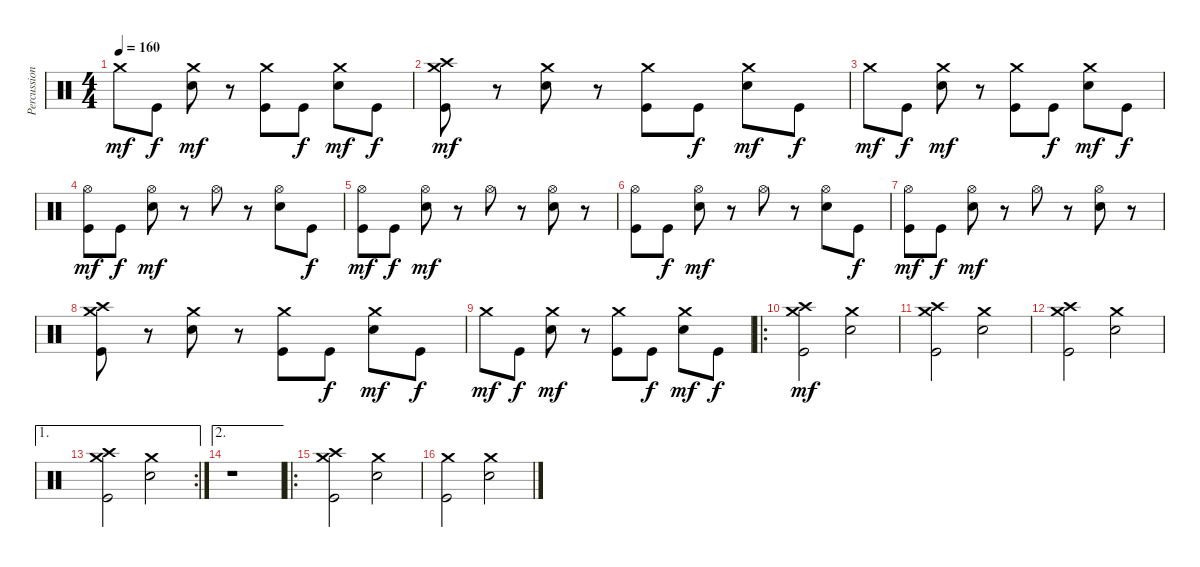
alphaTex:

\track ("Percussions" "Percussion") {instrument percussion}
\staff {score}
\articulation defaults
\ts (4 4)
\tempo 160
\clef neutral
\ks c "Crash medium (hit)".8{dy mf} "Kick (hit)".8{dy f}
("Electric Snare (hit)" "Crash medium (hit)").8{dy mf} r.8 ("Kick (hit)" "Crash medium (hit)").8 "Kick (hit)".8{dy f} ("Electric Snare (hit)" "Crash medium (hit)").8{dy mf} "Kick (hit)".8{dy f} |
("Kick (hit)" "Crash medium (hit)" "Crash high (hit)").8{dy mf} r.8 ("Electric Snare (hit)" "Crash medium (hit)").8 r.8 ("Kick (hit)" "Crash medium (hit)").8 "Kick (hit)".8{dy f} ("Electric Snare (hit)" "Crash medium (hit)").8{dy mf} "Kick (hit)".8{dy f} |
"Crash medium (hit)".8{dy mf} "Kick (hit)".8{dy f} ("Electric Snare (hit)" "Crash medium (hit)").8{dy mf} r.8 ("Kick (hit)" "Crash medium (hit)").8 "Kick (hit)".8{dy f} ("Electric Snare (hit)" "Crash medium (hit)").8{dy mf} "Kick (hit)".8{dy f} |
("Kick (hit)" "Hi-Hat (open)").8{dy mf} "Kick (hit)".8{dy f} ("Electric Snare (hit)" "Hi-Hat (open)").8{dy mf} r.8 "Hi-Hat (open)".8 r.8 ("Electric Snare (hit)" "Hi-Hat (open)").8 "Kick (hit)".8{dy f} |
("Kick (hit)" "Hi-Hat (open)").8{dy mf} "Kick (hit)".8{dy f} ("Electric Snare (hit)" "Hi-Hat (open)").8{dy mf} r.8 "Hi-Hat (open)".8 r.8 ("Electric Snare (hit)" "Hi-Hat (open)").8 r.8 |
("Kick (hit)" "Hi-Hat (open)").8 "Kick (hit)".8{dy f} ("Electric Snare (hit)" "Hi-Hat (open)").8{dy mf} r.8 "Hi-Hat (open)".8 r.8 ("Electric Snare (hit)" "Hi-Hat (open)").8 "Kick (hit)".8{dy f} |
("Kick (hit)" "Hi-Hat (open)").8{dy mf} "Kick (hit)".8{dy f} ("Electric Snare (hit)" "Hi-Hat (open)").8{dy mf} r.8 "Hi-Hat (open)".8 r.8 ("Electric Snare (hit)" "Hi-Hat (open)").8 r.8 |
("Kick (hit)" "Crash medium (hit)" "Crash high (hit)").8 r.8 ("Electric Snare (hit)" "Crash medium (hit)").8 r.8 ("Kick (hit)" "Crash medium (hit)").8 "Kick (hit)".8{dy f} ("Electric Snare (hit)" "Crash medium (hit)").8{dy mf} "Kick (hit)".8{dy f} |
"Crash medium (hit)".8{dy mf} "Kick (hit)".8{dy f} ("Electric Snare (hit)" "Crash medium (hit)").8{dy mf} r.8 ("Kick (hit)" "Crash medium (hit)").8 "Kick (hit)".8{dy f} ("Electric Snare (hit)" "Crash medium (hit)").8{dy mf} "Kick (hit)".8{dy f} |
\ro
("Kick (hit)" "Crash medium (hit)" "Crash high (hit)").2{dy mf} ("Electric Snare (hit)" "Crash medium (hit)").2 |
("Kick (hit)" "Crash medium (hit)" "Crash high (hit)").2 ("Electric Snare (hit)" "Crash medium (hit)").2 |
("Kick (hit)" "Crash medium (hit)" "Crash high (hit)").2 ("Electric Snare (hit)" "Crash medium (hit)").2 |
\ae 1
\rc 2
("Kick (hit)" "Crash medium (hit)" "Crash high (hit)").2 ("Electric Snare (hit)" "Crash medium (hit)").2 |
\ae 2
r.1 |
\ro
("Kick (hit)" "Crash medium (hit)" "Crash high (hit)").2 ("Electric Snare (hit)" "Crash medium (hit)").2 |
("Kick (hit)" "Crash medium (hit)").2 ("Electric Snare (hit)" "Crash medium (hit)").2
